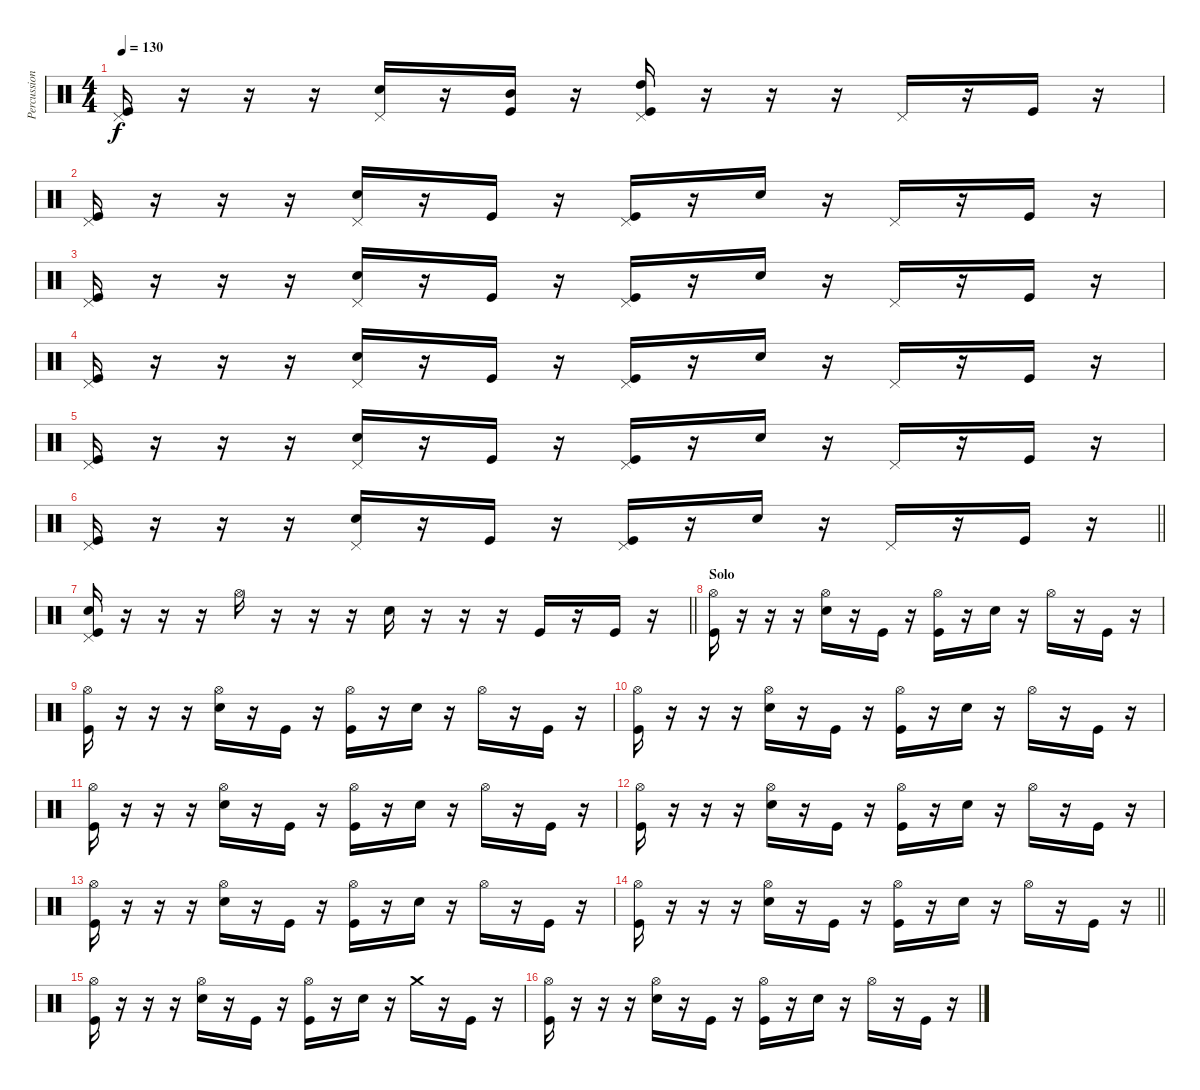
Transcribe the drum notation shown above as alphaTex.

\track ("Percussion" "Percussion") {instrument percussion}
\staff {score}
\articulation defaults
\ts (4 4)
\tempo 130
\clef neutral
\ks c
("Pedal Hi-Hat (hit)" "Kick (hit)").16{dy f} r.16 r.16 r.16 ("Pedal Hi-Hat (hit)" "Electric Snare (hit)").16 r.16 ("Mid Tom (hit)" "Kick (hit)").16 r.16 ("Pedal Hi-Hat (hit)" "High Tom (hit)" "Kick (hit)").16 r.16 r.16 r.16 "Pedal Hi-Hat (hit)".16 r.16 "Kick (hit)".16 r.16 |
("Pedal Hi-Hat (hit)" "Kick (hit)").16 r.16 r.16 r.16 ("Pedal Hi-Hat (hit)" "Electric Snare (hit)").16 r.16 "Kick (hit)".16 r.16 ("Pedal Hi-Hat (hit)" "Kick (hit)").16 r.16 "Electric Snare (hit)".16 r.16 "Pedal Hi-Hat (hit)".16 r.16 "Kick (hit)".16 r.16 |
("Pedal Hi-Hat (hit)" "Kick (hit)").16 r.16 r.16 r.16 ("Pedal Hi-Hat (hit)" "Electric Snare (hit)").16 r.16 "Kick (hit)".16 r.16 ("Pedal Hi-Hat (hit)" "Kick (hit)").16 r.16 "Electric Snare (hit)".16 r.16 "Pedal Hi-Hat (hit)".16 r.16 "Kick (hit)".16 r.16 |
("Pedal Hi-Hat (hit)" "Kick (hit)").16 r.16 r.16 r.16 ("Pedal Hi-Hat (hit)" "Electric Snare (hit)").16 r.16 "Kick (hit)".16 r.16 ("Pedal Hi-Hat (hit)" "Kick (hit)").16 r.16 "Electric Snare (hit)".16 r.16 "Pedal Hi-Hat (hit)".16 r.16 "Kick (hit)".16 r.16 |
("Pedal Hi-Hat (hit)" "Kick (hit)").16 r.16 r.16 r.16 ("Pedal Hi-Hat (hit)" "Electric Snare (hit)").16 r.16 "Kick (hit)".16 r.16 ("Pedal Hi-Hat (hit)" "Kick (hit)").16 r.16 "Electric Snare (hit)".16 r.16 "Pedal Hi-Hat (hit)".16 r.16 "Kick (hit)".16 r.16 |
\barLineRight lightlight
("Pedal Hi-Hat (hit)" "Kick (hit)").16 r.16 r.16 r.16 ("Pedal Hi-Hat (hit)" "Electric Snare (hit)").16 r.16 "Kick (hit)".16 r.16 ("Pedal Hi-Hat (hit)" "Kick (hit)").16 r.16 "Electric Snare (hit)".16 r.16 "Pedal Hi-Hat (hit)".16 r.16 "Kick (hit)".16 r.16 |
\barLineRight lightlight
("Pedal Hi-Hat (hit)" "Electric Snare (hit)" "Kick (hit)").16 r.16 r.16 r.16 "Hi-Hat (open)".16 r.16 r.16 r.16 "Electric Snare (hit)".16 r.16 r.16 r.16 "Kick (hit)".16 r.16 "Kick (hit)".16 r.16 |
\section ("" "Solo")
("Hi-Hat (open)" "Kick (hit)").16{volume 16} r.16 r.16 r.16 ("Hi-Hat (open)" "Electric Snare (hit)").16 r.16 "Kick (hit)".16 r.16 ("Hi-Hat (open)" "Kick (hit)").16 r.16 "Electric Snare (hit)".16 r.16 "Hi-Hat (open)".16 r.16 "Kick (hit)".16 r.16 |
("Hi-Hat (open)" "Kick (hit)").16 r.16 r.16 r.16 ("Hi-Hat (open)" "Electric Snare (hit)").16 r.16 "Kick (hit)".16 r.16 ("Hi-Hat (open)" "Kick (hit)").16 r.16 "Electric Snare (hit)".16 r.16 "Hi-Hat (open)".16 r.16 "Kick (hit)".16 r.16 |
("Hi-Hat (open)" "Kick (hit)").16 r.16 r.16 r.16 ("Hi-Hat (open)" "Electric Snare (hit)").16 r.16 "Kick (hit)".16 r.16 ("Hi-Hat (open)" "Kick (hit)").16 r.16 "Electric Snare (hit)".16 r.16 "Hi-Hat (open)".16 r.16 "Kick (hit)".16 r.16 |
("Hi-Hat (open)" "Kick (hit)").16 r.16 r.16 r.16 ("Hi-Hat (open)" "Electric Snare (hit)").16 r.16 "Kick (hit)".16 r.16 ("Hi-Hat (open)" "Kick (hit)").16 r.16 "Electric Snare (hit)".16 r.16 "Hi-Hat (open)".16 r.16 "Kick (hit)".16 r.16 |
("Hi-Hat (open)" "Kick (hit)").16 r.16 r.16 r.16 ("Hi-Hat (open)" "Electric Snare (hit)").16 r.16 "Kick (hit)".16 r.16 ("Hi-Hat (open)" "Kick (hit)").16 r.16 "Electric Snare (hit)".16 r.16 "Hi-Hat (open)".16 r.16 "Kick (hit)".16 r.16 |
("Hi-Hat (open)" "Kick (hit)").16 r.16 r.16 r.16 ("Hi-Hat (open)" "Electric Snare (hit)").16 r.16 "Kick (hit)".16 r.16 ("Hi-Hat (open)" "Kick (hit)").16 r.16 "Electric Snare (hit)".16 r.16 "Hi-Hat (open)".16 r.16 "Kick (hit)".16 r.16 |
\barLineRight lightlight
("Hi-Hat (open)" "Kick (hit)").16 r.16 r.16 r.16 ("Hi-Hat (open)" "Electric Snare (hit)").16 r.16 "Kick (hit)".16 r.16 ("Hi-Hat (open)" "Kick (hit)").16 r.16 "Electric Snare (hit)".16 r.16 "Hi-Hat (open)".16 r.16 "Kick (hit)".16 r.16 |
("Hi-Hat (open)" "Kick (hit)").16 r.16 r.16 r.16 ("Hi-Hat (open)" "Electric Snare (hit)").16 r.16 "Kick (hit)".16 r.16 ("Hi-Hat (open)" "Kick (hit)").16 r.16 "Electric Snare (hit)".16 r.16 "Crash medium (hit)".16 r.16 "Kick (hit)".16 r.16 |
("Hi-Hat (open)" "Kick (hit)").16 r.16 r.16 r.16 ("Hi-Hat (open)" "Electric Snare (hit)").16 r.16 "Kick (hit)".16 r.16 ("Hi-Hat (open)" "Kick (hit)").16 r.16 "Electric Snare (hit)".16 r.16 "Hi-Hat (open)".16 r.16 "Kick (hit)".16 r.16
